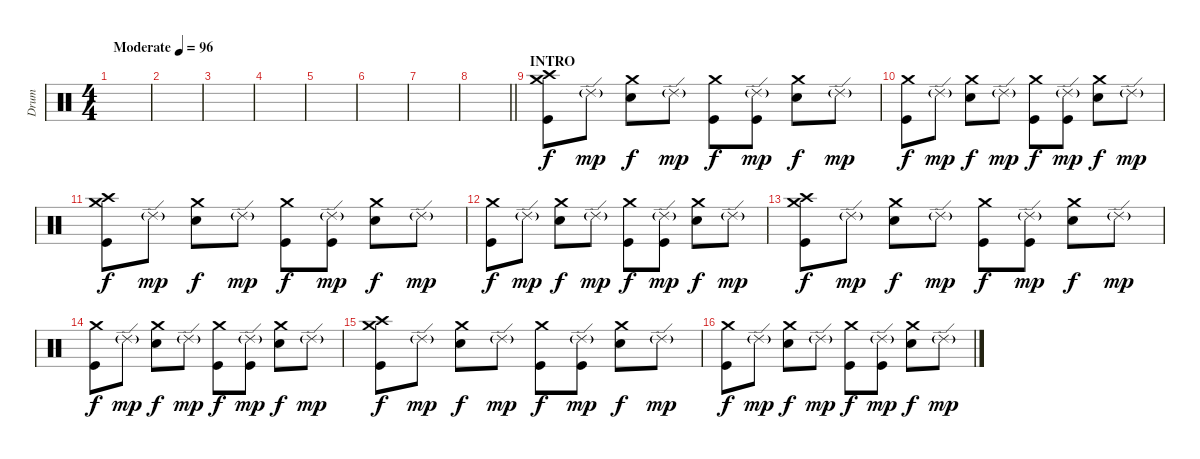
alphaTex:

\track ("Drum" "Drum") {instrument percussion}
\staff {score}
\articulation defaults
\ts (4 4)
\tempo (96 "Moderate")
\clef neutral
\ks c
|
|
|
|
|
|
|
\barLineRight lightlight
|
\section ("" "INTRO")
("Crash high (hit)" "Crash medium (hit)" "Kick (hit)").8 "Ride (edge) 2"{g}.8{dy mp} ("Crash medium (hit)" "Electric Snare (hit)").8{dy f} "Ride (edge) 2"{g}.8{dy mp} ("Crash medium (hit)" "Kick (hit)").8{dy f} ("Ride (edge) 2"{g} "Kick (hit)").8{dy mp} ("Crash medium (hit)" "Electric Snare (hit)").8{dy f} "Ride (edge) 2"{g}.8{dy mp} |
("Crash medium (hit)" "Kick (hit)").8{dy f} "Ride (edge) 2"{g}.8{dy mp} ("Crash medium (hit)" "Electric Snare (hit)").8{dy f} "Ride (edge) 2"{g}.8{dy mp} ("Crash medium (hit)" "Kick (hit)").8{dy f} ("Ride (edge) 2"{g} "Kick (hit)").8{dy mp} ("Crash medium (hit)" "Electric Snare (hit)").8{dy f} "Ride (edge) 2"{g}.8{dy mp} |
("Crash high (hit)" "Crash medium (hit)" "Kick (hit)").8{dy f} "Ride (edge) 2"{g}.8{dy mp} ("Crash medium (hit)" "Electric Snare (hit)").8{dy f} "Ride (edge) 2"{g}.8{dy mp} ("Crash medium (hit)" "Kick (hit)").8{dy f} ("Ride (edge) 2"{g} "Kick (hit)").8{dy mp} ("Crash medium (hit)" "Electric Snare (hit)").8{dy f} "Ride (edge) 2"{g}.8{dy mp} |
("Crash medium (hit)" "Kick (hit)").8{dy f} "Ride (edge) 2"{g}.8{dy mp} ("Crash medium (hit)" "Electric Snare (hit)").8{dy f} "Ride (edge) 2"{g}.8{dy mp} ("Crash medium (hit)" "Kick (hit)").8{dy f} ("Ride (edge) 2"{g} "Kick (hit)").8{dy mp} ("Crash medium (hit)" "Electric Snare (hit)").8{dy f} "Ride (edge) 2"{g}.8{dy mp} |
("Crash high (hit)" "Crash medium (hit)" "Kick (hit)").8{dy f} "Ride (edge) 2"{g}.8{dy mp} ("Crash medium (hit)" "Electric Snare (hit)").8{dy f} "Ride (edge) 2"{g}.8{dy mp} ("Crash medium (hit)" "Kick (hit)").8{dy f} ("Ride (edge) 2"{g} "Kick (hit)").8{dy mp} ("Crash medium (hit)" "Electric Snare (hit)").8{dy f} "Ride (edge) 2"{g}.8{dy mp} |
("Crash medium (hit)" "Kick (hit)").8{dy f} "Ride (edge) 2"{g}.8{dy mp} ("Crash medium (hit)" "Electric Snare (hit)").8{dy f} "Ride (edge) 2"{g}.8{dy mp} ("Crash medium (hit)" "Kick (hit)").8{dy f} ("Ride (edge) 2"{g} "Kick (hit)").8{dy mp} ("Crash medium (hit)" "Electric Snare (hit)").8{dy f} "Ride (edge) 2"{g}.8{dy mp} |
("Crash high (hit)" "Crash medium (hit)" "Kick (hit)").8{dy f} "Ride (edge) 2"{g}.8{dy mp} ("Crash medium (hit)" "Electric Snare (hit)").8{dy f} "Ride (edge) 2"{g}.8{dy mp} ("Crash medium (hit)" "Kick (hit)").8{dy f} ("Ride (edge) 2"{g} "Kick (hit)").8{dy mp} ("Crash medium (hit)" "Electric Snare (hit)").8{dy f} "Ride (edge) 2"{g}.8{dy mp} |
("Crash medium (hit)" "Kick (hit)").8{dy f} "Ride (edge) 2"{g}.8{dy mp} ("Crash medium (hit)" "Electric Snare (hit)").8{dy f} "Ride (edge) 2"{g}.8{dy mp} ("Crash medium (hit)" "Kick (hit)").8{dy f} ("Ride (edge) 2"{g} "Kick (hit)").8{dy mp} ("Crash medium (hit)" "Electric Snare (hit)").8{dy f} "Ride (edge) 2"{g}.8{dy mp}
